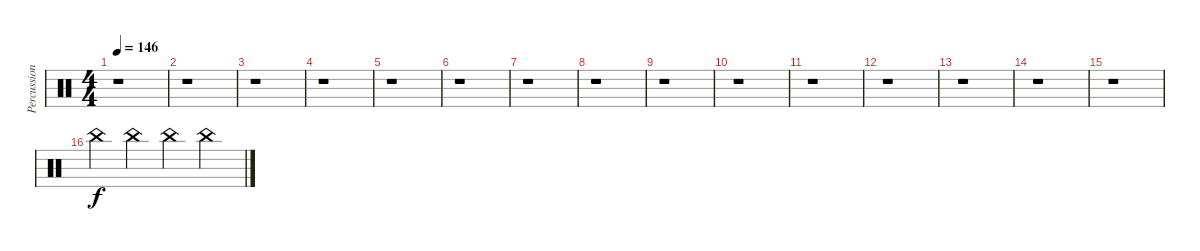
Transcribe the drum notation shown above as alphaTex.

\track ("Percussion" "Percussion") {instrument percussion}
\staff {score}
\articulation defaults
\ts (4 4)
\tempo 146
\clef neutral
\ks c
r.1{dy f} |
r.1 |
r.1 |
r.1 |
r.1 |
r.1 |
r.1 |
r.1 |
r.1 |
r.1 |
r.1 |
r.1 |
r.1 |
r.1 |
r.1 |
"China (hit)".4 "China (hit)".4 "China (hit)".4 "China (hit)".4
